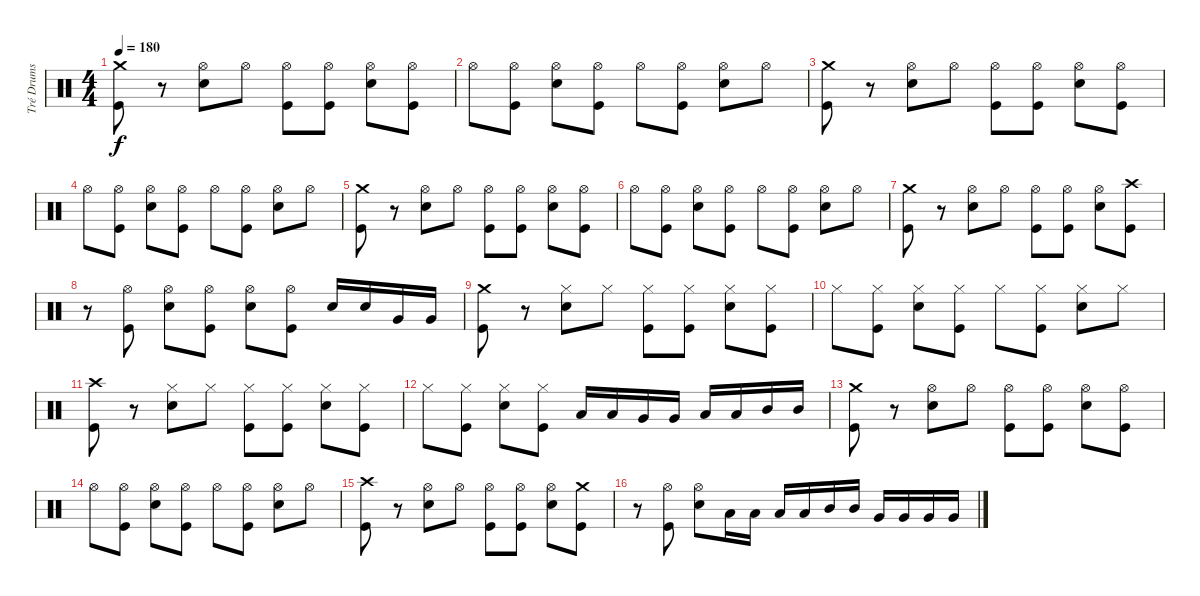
\track ("Tré Drums" "Tré Drums") {instrument percussion}
\staff {score}
\articulation defaults
\ts (4 4)
\tempo 180
\clef neutral
\ks c
("Crash medium (hit)" "Kick (hit)").8{dy f} r.8 ("Hi-Hat (open)" "Electric Snare (hit)").8 "Hi-Hat (open)".8 ("Hi-Hat (open)" "Kick (hit)").8 ("Hi-Hat (open)" "Kick (hit)").8 ("Hi-Hat (open)" "Electric Snare (hit)").8 ("Hi-Hat (open)" "Kick (hit)").8 |
"Hi-Hat (open)".8 ("Hi-Hat (open)" "Kick (hit)").8 ("Hi-Hat (open)" "Electric Snare (hit)").8 ("Hi-Hat (open)" "Kick (hit)").8 "Hi-Hat (open)".8 ("Hi-Hat (open)" "Kick (hit)").8 ("Hi-Hat (open)" "Electric Snare (hit)").8 "Hi-Hat (open)".8 |
("Crash medium (hit)" "Kick (hit)").8 r.8 ("Hi-Hat (open)" "Electric Snare (hit)").8 "Hi-Hat (open)".8 ("Hi-Hat (open)" "Kick (hit)").8 ("Hi-Hat (open)" "Kick (hit)").8 ("Hi-Hat (open)" "Electric Snare (hit)").8 ("Hi-Hat (open)" "Kick (hit)").8 |
"Hi-Hat (open)".8 ("Hi-Hat (open)" "Kick (hit)").8 ("Hi-Hat (open)" "Electric Snare (hit)").8 ("Hi-Hat (open)" "Kick (hit)").8 "Hi-Hat (open)".8 ("Hi-Hat (open)" "Kick (hit)").8 ("Hi-Hat (open)" "Electric Snare (hit)").8 "Hi-Hat (open)".8 |
("Crash medium (hit)" "Kick (hit)").8 r.8 ("Hi-Hat (open)" "Electric Snare (hit)").8 "Hi-Hat (open)".8 ("Hi-Hat (open)" "Kick (hit)").8 ("Hi-Hat (open)" "Kick (hit)").8 ("Hi-Hat (open)" "Electric Snare (hit)").8 ("Hi-Hat (open)" "Kick (hit)").8 |
"Hi-Hat (open)".8 ("Hi-Hat (open)" "Kick (hit)").8 ("Hi-Hat (open)" "Electric Snare (hit)").8 ("Hi-Hat (open)" "Kick (hit)").8 "Hi-Hat (open)".8 ("Hi-Hat (open)" "Kick (hit)").8 ("Hi-Hat (open)" "Electric Snare (hit)").8 "Hi-Hat (open)".8 |
("Crash medium (hit)" "Kick (hit)").8 r.8 ("Hi-Hat (open)" "Electric Snare (hit)").8 "Hi-Hat (open)".8 ("Hi-Hat (open)" "Kick (hit)").8 ("Hi-Hat (open)" "Kick (hit)").8 ("Hi-Hat (open)" "Electric Snare (hit)").8 ("Crash high (hit)" "Kick (hit)").8 |
r.8 ("Hi-Hat (open)" "Kick (hit)").8 ("Hi-Hat (open)" "Electric Snare (hit)").8 ("Hi-Hat (open)" "Kick (hit)").8 ("Hi-Hat (open)" "Electric Snare (hit)").8 ("Hi-Hat (open)" "Kick (hit)").8 "Electric Snare (hit)".16 "Electric Snare (hit)".16 "Very Low Tom (hit)".16 "Very Low Tom (hit)".16 |
("Crash medium (hit)" "Kick (hit)").8 r.8 ("Hi-Hat (closed)" "Electric Snare (hit)").8 "Hi-Hat (closed)".8 ("Hi-Hat (closed)" "Kick (hit)").8 ("Hi-Hat (closed)" "Kick (hit)").8 ("Hi-Hat (closed)" "Electric Snare (hit)").8 ("Hi-Hat (closed)" "Kick (hit)").8 |
"Hi-Hat (closed)".8 ("Hi-Hat (closed)" "Kick (hit)").8 ("Hi-Hat (closed)" "Electric Snare (hit)").8 ("Hi-Hat (closed)" "Kick (hit)").8 "Hi-Hat (closed)".8 ("Hi-Hat (closed)" "Kick (hit)").8 ("Hi-Hat (closed)" "Electric Snare (hit)").8 "Hi-Hat (closed)".8 |
("Crash high (hit)" "Kick (hit)").8 r.8 ("Hi-Hat (closed)" "Electric Snare (hit)").8 "Hi-Hat (closed)".8 ("Hi-Hat (closed)" "Kick (hit)").8 ("Hi-Hat (closed)" "Kick (hit)").8 ("Hi-Hat (closed)" "Electric Snare (hit)").8 ("Hi-Hat (closed)" "Kick (hit)").8 |
"Hi-Hat (closed)".8 ("Hi-Hat (closed)" "Kick (hit)").8 ("Hi-Hat (closed)" "Electric Snare (hit)").8 ("Hi-Hat (closed)" "Kick (hit)").8 "Low Tom (hit)".16 "Low Tom (hit)".16 "Very Low Tom (hit)".16 "Very Low Tom (hit)".16 "Low Tom (hit)".16 "Low Tom (hit)".16 "Mid Tom (hit)".16 "Mid Tom (hit)".16 |
("Crash medium (hit)" "Kick (hit)").8 r.8 ("Hi-Hat (open)" "Electric Snare (hit)").8 "Hi-Hat (open)".8 ("Hi-Hat (open)" "Kick (hit)").8 ("Hi-Hat (open)" "Kick (hit)").8 ("Hi-Hat (open)" "Electric Snare (hit)").8 ("Hi-Hat (open)" "Kick (hit)").8 |
"Hi-Hat (open)".8 ("Hi-Hat (open)" "Kick (hit)").8 ("Hi-Hat (open)" "Electric Snare (hit)").8 ("Hi-Hat (open)" "Kick (hit)").8 "Hi-Hat (open)".8 ("Hi-Hat (open)" "Kick (hit)").8 ("Hi-Hat (open)" "Electric Snare (hit)").8 "Hi-Hat (open)".8 |
("Crash high (hit)" "Kick (hit)").8 r.8 ("Hi-Hat (open)" "Electric Snare (hit)").8 "Hi-Hat (open)".8 ("Hi-Hat (open)" "Kick (hit)").8 ("Hi-Hat (open)" "Kick (hit)").8 ("Hi-Hat (open)" "Electric Snare (hit)").8 ("Crash medium (hit)" "Kick (hit)").8 |
r.8 ("Hi-Hat (open)" "Kick (hit)").8 ("Hi-Hat (open)" "Electric Snare (hit)").8 "Low Tom (hit)".16 "Low Tom (hit)".16 "Low Tom (hit)".16 "Low Tom (hit)".16 "Mid Tom (hit)".16 "Mid Tom (hit)".16 "Very Low Tom (hit)".16 "Very Low Tom (hit)".16 "Very Low Tom (hit)".16 "Very Low Tom (hit)".16
